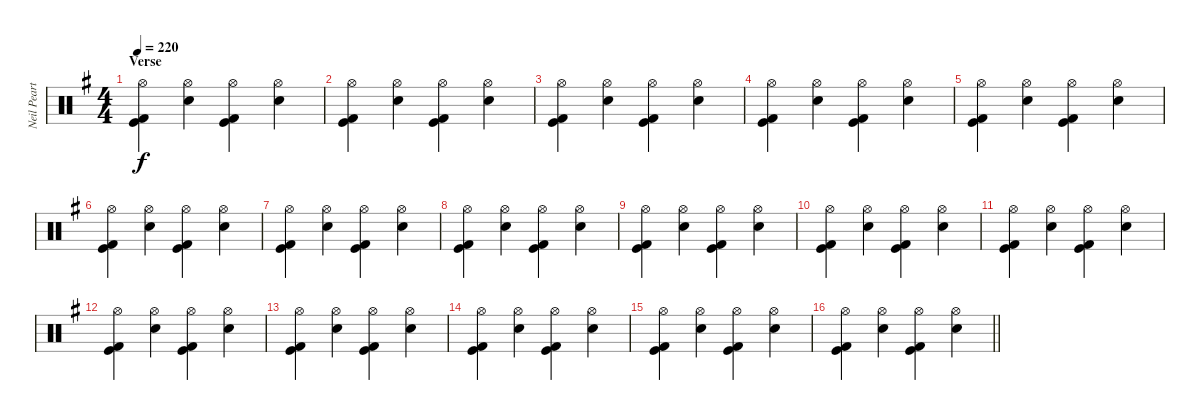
\track ("Neil Peart" "Neil Peart") {instrument percussion}
\staff {score}
\articulation defaults
\ts (4 4)
\section ("" "Verse")
\tempo 220
\clef neutral
\ks g
("Hi-Hat (open)" "Kick (hit) 2" "Kick (hit)").4{dy f balance 8} ("Hi-Hat (open)" "Snare (hit) 2").4 ("Hi-Hat (open)" "Kick (hit) 2" "Kick (hit)").4 ("Hi-Hat (open)" "Snare (hit) 2").4 |
("Hi-Hat (open)" "Kick (hit) 2" "Kick (hit)").4 ("Hi-Hat (open)" "Snare (hit) 2").4 ("Hi-Hat (open)" "Kick (hit) 2" "Kick (hit)").4 ("Hi-Hat (open)" "Snare (hit) 2").4 |
("Hi-Hat (open)" "Kick (hit) 2" "Kick (hit)").4 ("Hi-Hat (open)" "Snare (hit) 2").4 ("Hi-Hat (open)" "Kick (hit) 2" "Kick (hit)").4 ("Hi-Hat (open)" "Snare (hit) 2").4 |
("Hi-Hat (open)" "Kick (hit) 2" "Kick (hit)").4 ("Hi-Hat (open)" "Snare (hit) 2").4 ("Hi-Hat (open)" "Kick (hit) 2" "Kick (hit)").4 ("Hi-Hat (open)" "Snare (hit) 2").4 |
("Hi-Hat (open)" "Kick (hit) 2" "Kick (hit)").4{balance 8} ("Hi-Hat (open)" "Snare (hit) 2").4 ("Hi-Hat (open)" "Kick (hit) 2" "Kick (hit)").4 ("Hi-Hat (open)" "Snare (hit) 2").4 |
("Hi-Hat (open)" "Kick (hit) 2" "Kick (hit)").4 ("Hi-Hat (open)" "Snare (hit) 2").4 ("Hi-Hat (open)" "Kick (hit) 2" "Kick (hit)").4 ("Hi-Hat (open)" "Snare (hit) 2").4 |
("Hi-Hat (open)" "Kick (hit) 2" "Kick (hit)").4 ("Hi-Hat (open)" "Snare (hit) 2").4 ("Hi-Hat (open)" "Kick (hit) 2" "Kick (hit)").4 ("Hi-Hat (open)" "Snare (hit) 2").4 |
("Hi-Hat (open)" "Kick (hit) 2" "Kick (hit)").4 ("Hi-Hat (open)" "Snare (hit) 2").4 ("Hi-Hat (open)" "Kick (hit) 2" "Kick (hit)").4 ("Hi-Hat (open)" "Snare (hit) 2").4 |
("Hi-Hat (open)" "Kick (hit) 2" "Kick (hit)").4{balance 8} ("Hi-Hat (open)" "Snare (hit) 2").4 ("Hi-Hat (open)" "Kick (hit) 2" "Kick (hit)").4 ("Hi-Hat (open)" "Snare (hit) 2").4 |
("Hi-Hat (open)" "Kick (hit) 2" "Kick (hit)").4 ("Hi-Hat (open)" "Snare (hit) 2").4 ("Hi-Hat (open)" "Kick (hit) 2" "Kick (hit)").4 ("Hi-Hat (open)" "Snare (hit) 2").4 |
("Hi-Hat (open)" "Kick (hit) 2" "Kick (hit)").4 ("Hi-Hat (open)" "Snare (hit) 2").4 ("Hi-Hat (open)" "Kick (hit) 2" "Kick (hit)").4 ("Hi-Hat (open)" "Snare (hit) 2").4 |
("Hi-Hat (open)" "Kick (hit) 2" "Kick (hit)").4 ("Hi-Hat (open)" "Snare (hit) 2").4 ("Hi-Hat (open)" "Kick (hit) 2" "Kick (hit)").4 ("Hi-Hat (open)" "Snare (hit) 2").4 |
("Hi-Hat (open)" "Kick (hit) 2" "Kick (hit)").4{balance 8} ("Hi-Hat (open)" "Snare (hit) 2").4 ("Hi-Hat (open)" "Kick (hit) 2" "Kick (hit)").4 ("Hi-Hat (open)" "Snare (hit) 2").4 |
("Hi-Hat (open)" "Kick (hit) 2" "Kick (hit)").4 ("Hi-Hat (open)" "Snare (hit) 2").4 ("Hi-Hat (open)" "Kick (hit) 2" "Kick (hit)").4 ("Hi-Hat (open)" "Snare (hit) 2").4 |
("Hi-Hat (open)" "Kick (hit) 2" "Kick (hit)").4 ("Hi-Hat (open)" "Snare (hit) 2").4 ("Hi-Hat (open)" "Kick (hit) 2" "Kick (hit)").4 ("Hi-Hat (open)" "Snare (hit) 2").4 |
\barLineRight lightlight
("Hi-Hat (open)" "Kick (hit) 2" "Kick (hit)").4 ("Hi-Hat (open)" "Snare (hit) 2").4 ("Hi-Hat (open)" "Kick (hit) 2" "Kick (hit)").4 ("Hi-Hat (open)" "Snare (hit) 2").4
